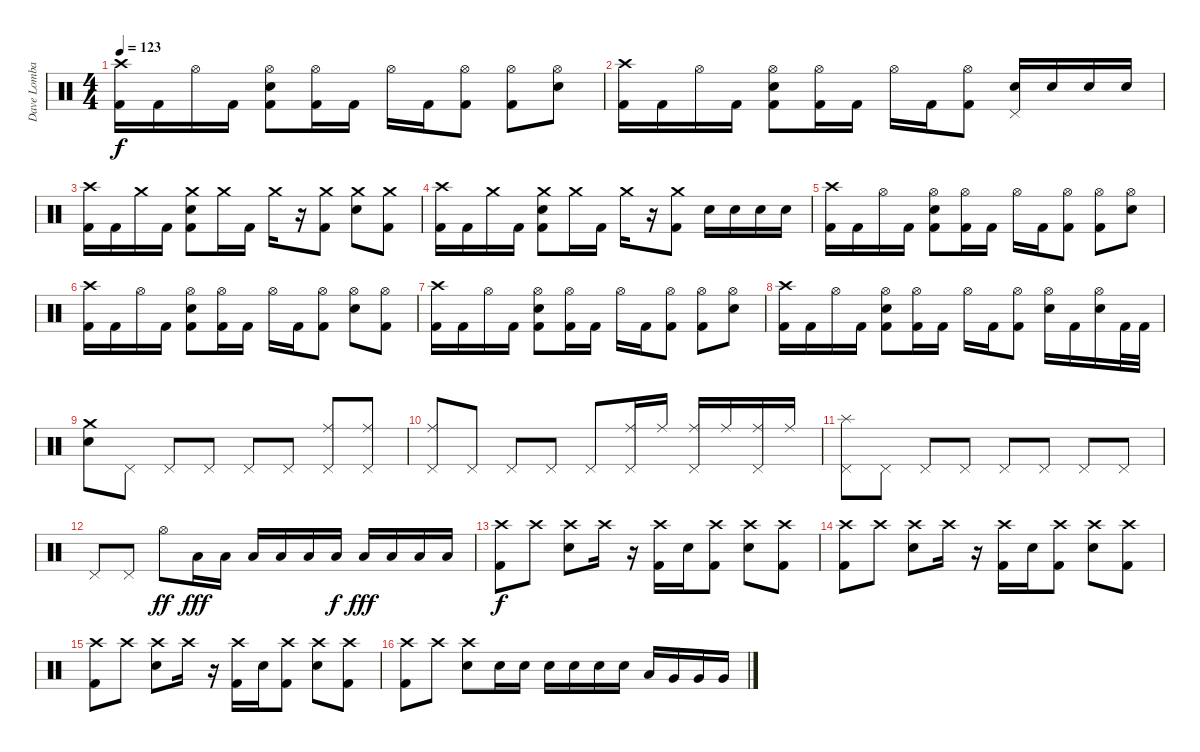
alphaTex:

\track ("Dave Lombardo" "Dave Lomba") {instrument percussion}
\staff {score}
\articulation defaults
\ts (4 4)
\tempo 123
\clef neutral
\ks c
("Crash high (hit)" "Kick (hit) 2").16{dy f} "Kick (hit) 2".16 "Hi-Hat (open)".16 "Kick (hit) 2".16 ("Hi-Hat (open)" "Electric Snare (hit)" "Kick (hit) 2").8 ("Hi-Hat (open)" "Kick (hit) 2").16 "Kick (hit) 2".16 "Hi-Hat (open)".16 "Kick (hit) 2".16 ("Hi-Hat (open)" "Kick (hit) 2").8 ("Hi-Hat (open)" "Kick (hit) 2").8 ("Hi-Hat (open)" "Electric Snare (hit)").8 |
("Crash high (hit)" "Kick (hit) 2").16 "Kick (hit) 2".16 "Hi-Hat (open)".16 "Kick (hit) 2".16 ("Hi-Hat (open)" "Electric Snare (hit)" "Kick (hit) 2").8 ("Hi-Hat (open)" "Kick (hit) 2").16 "Kick (hit) 2".16 "Hi-Hat (open)".16 "Kick (hit) 2".16 ("Hi-Hat (open)" "Kick (hit) 2").8 ("Pedal Hi-Hat (hit)" "Electric Snare (hit)").16 "Electric Snare (hit)".16 "Electric Snare (hit)".16 "Electric Snare (hit)".16 |
("Crash high (hit)" "Kick (hit) 2").16 "Kick (hit) 2".16 "Crash medium (hit)".16 "Kick (hit) 2".16 ("Crash medium (hit)" "Electric Snare (hit)" "Kick (hit) 2").8 "Crash medium (hit)".16 "Kick (hit) 2".16 "Crash medium (hit)".16 r.16 ("Crash medium (hit)" "Kick (hit) 2").8 ("Crash medium (hit)" "Electric Snare (hit)").8 ("Crash medium (hit)" "Kick (hit) 2").8 |
("Crash high (hit)" "Kick (hit) 2").16 "Kick (hit) 2".16 "Crash medium (hit)".16 "Kick (hit) 2".16 ("Crash medium (hit)" "Electric Snare (hit)" "Kick (hit) 2").8 "Crash medium (hit)".16 "Kick (hit) 2".16 "Crash medium (hit)".16 r.16 ("Crash medium (hit)" "Kick (hit) 2").8 "Electric Snare (hit)".16 "Electric Snare (hit)".16 "Electric Snare (hit)".16 "Electric Snare (hit)".16 |
("Crash high (hit)" "Kick (hit) 2").16 "Kick (hit) 2".16 "Hi-Hat (open)".16 "Kick (hit) 2".16 ("Hi-Hat (open)" "Electric Snare (hit)" "Kick (hit) 2").8 ("Hi-Hat (open)" "Kick (hit) 2").16 "Kick (hit) 2".16 "Hi-Hat (open)".16 "Kick (hit) 2".16 ("Hi-Hat (open)" "Kick (hit) 2").8 ("Hi-Hat (open)" "Kick (hit) 2").8 ("Hi-Hat (open)" "Electric Snare (hit)").8 |
("Crash high (hit)" "Kick (hit) 2").16 "Kick (hit) 2".16 "Hi-Hat (open)".16 "Kick (hit) 2".16 ("Hi-Hat (open)" "Electric Snare (hit)" "Kick (hit) 2").8 ("Hi-Hat (open)" "Kick (hit) 2").16 "Kick (hit) 2".16 "Hi-Hat (open)".16 "Kick (hit) 2".16 ("Hi-Hat (open)" "Kick (hit) 2").8 ("Hi-Hat (open)" "Electric Snare (hit)").8 ("Hi-Hat (open)" "Kick (hit) 2").8 |
("Crash high (hit)" "Kick (hit) 2").16 "Kick (hit) 2".16 "Hi-Hat (open)".16 "Kick (hit) 2".16 ("Hi-Hat (open)" "Electric Snare (hit)" "Kick (hit) 2").8 ("Hi-Hat (open)" "Kick (hit) 2").16 "Kick (hit) 2".16 "Hi-Hat (open)".16 "Kick (hit) 2".16 ("Hi-Hat (open)" "Kick (hit) 2").8 ("Hi-Hat (open)" "Kick (hit) 2").8 ("Hi-Hat (open)" "Electric Snare (hit)").8 |
("Crash high (hit)" "Kick (hit) 2").16 "Kick (hit) 2".16 "Hi-Hat (open)".16 "Kick (hit) 2".16 ("Hi-Hat (open)" "Electric Snare (hit)" "Kick (hit) 2").8 ("Hi-Hat (open)" "Kick (hit) 2").16 "Kick (hit) 2".16 "Hi-Hat (open)".16 "Kick (hit) 2".16 ("Hi-Hat (open)" "Kick (hit) 2").8 ("Hi-Hat (open)" "Electric Snare (hit)").16 "Kick (hit) 2".16 ("Hi-Hat (open)" "Electric Snare (hit)").16 "Kick (hit) 2".32 "Kick (hit) 2".32 |
("Crash medium (hit)" "Electric Snare (hit)").8 "Pedal Hi-Hat (hit)".8 "Pedal Hi-Hat (hit)".8 "Pedal Hi-Hat (hit)".8 "Pedal Hi-Hat (hit)".8 "Pedal Hi-Hat (hit)".8 ("Pedal Hi-Hat (hit)" "Ride (middle)").8 ("Pedal Hi-Hat (hit)" "Ride (middle)").8 |
("Pedal Hi-Hat (hit)" "Ride (middle)").8 "Pedal Hi-Hat (hit)".8 "Pedal Hi-Hat (hit)".8 "Pedal Hi-Hat (hit)".8 "Pedal Hi-Hat (hit)".8 ("Pedal Hi-Hat (hit)" "Ride (middle)").16 "Ride (middle)".16 ("Pedal Hi-Hat (hit)" "Ride (middle)").16 "Ride (middle)".16 ("Pedal Hi-Hat (hit)" "Ride (middle)").16 "Ride (middle)".16 |
("Pedal Hi-Hat (hit)" "Splash (hit)").8 "Pedal Hi-Hat (hit)".8 "Pedal Hi-Hat (hit)".8 "Pedal Hi-Hat (hit)".8 "Pedal Hi-Hat (hit)".8 "Pedal Hi-Hat (hit)".8 "Pedal Hi-Hat (hit)".8 "Pedal Hi-Hat (hit)".8 |
"Pedal Hi-Hat (hit)".8 "Pedal Hi-Hat (hit)".8 "Hi-Hat (open)".8{dy ff} "Low Tom (hit)".16{dy fff} "Low Tom (hit)".16 "Low Tom (hit)".16 "Low Tom (hit)".16 "Low Tom (hit)".16 "Low Tom (hit)".16{dy f} "Low Tom (hit)".16{dy fff} "Low Tom (hit)".16 "Low Tom (hit)".16 "Low Tom (hit)".16 |
("Crash high (hit)" "Kick (hit) 2").8{dy f} "Crash high (hit)".8 ("Crash high (hit)" "Electric Snare (hit)").8 "Crash high (hit)".16 r.16 ("Crash high (hit)" "Kick (hit) 2").16 "Electric Snare (hit)".16 ("Crash high (hit)" "Kick (hit) 2").8 ("Crash high (hit)" "Electric Snare (hit)").8 ("Crash high (hit)" "Kick (hit) 2").8 |
("Crash high (hit)" "Kick (hit) 2").8 "Crash high (hit)".8 ("Crash high (hit)" "Electric Snare (hit)").8 "Crash high (hit)".16 r.16 ("Crash high (hit)" "Kick (hit) 2").16 "Electric Snare (hit)".16 ("Crash high (hit)" "Kick (hit) 2").8 ("Crash high (hit)" "Electric Snare (hit)").8 ("Crash high (hit)" "Kick (hit) 2").8 |
("Crash high (hit)" "Kick (hit) 2").8 "Crash high (hit)".8 ("Crash high (hit)" "Electric Snare (hit)").8 "Crash high (hit)".16 r.16 ("Crash high (hit)" "Kick (hit) 2").16 "Electric Snare (hit)".16 ("Crash high (hit)" "Kick (hit) 2").8 ("Crash high (hit)" "Electric Snare (hit)").8 ("Crash high (hit)" "Kick (hit) 2").8 |
("Crash high (hit)" "Kick (hit) 2").8 "Crash high (hit)".8 ("Crash high (hit)" "Electric Snare (hit)").8 "Electric Snare (hit)".16 "Electric Snare (hit)".16 "Electric Snare (hit)".16 "Electric Snare (hit)".16 "Electric Snare (hit)".16 "Electric Snare (hit)".16 "Low Tom (hit)".16 "Very Low Tom (hit)".16 "Very Low Tom (hit)".16 "Very Low Tom (hit)".16
